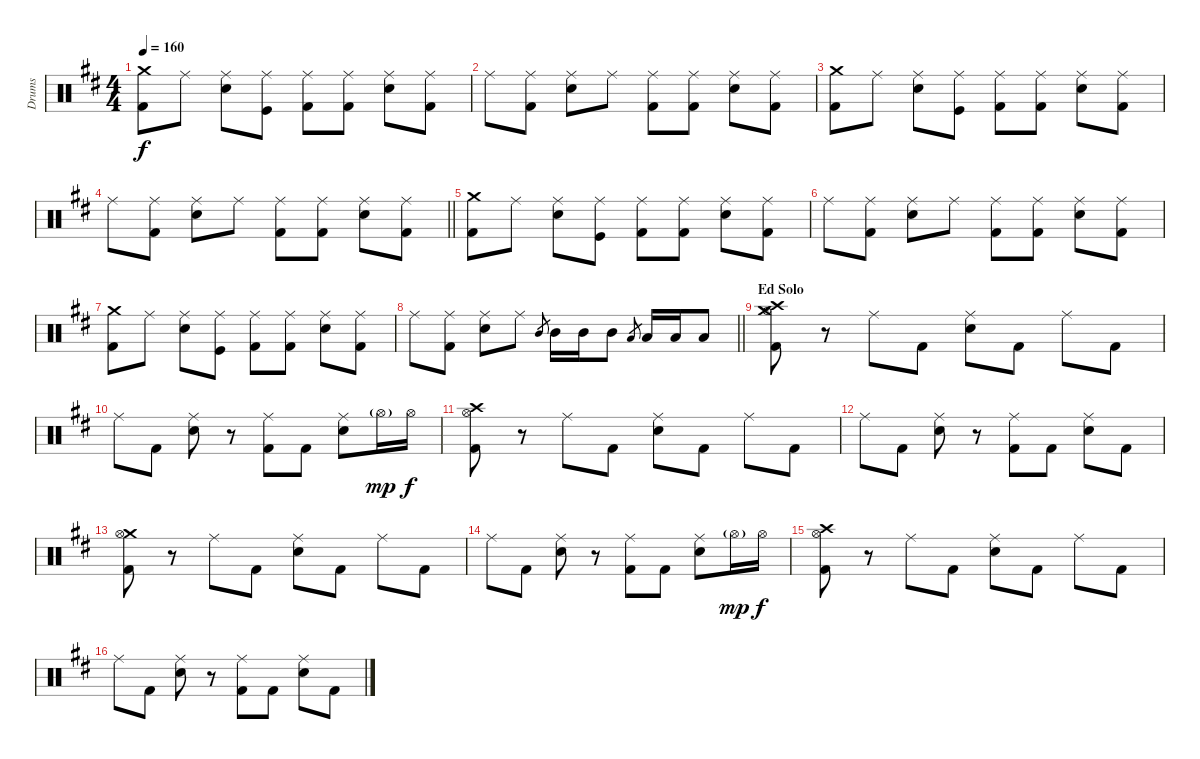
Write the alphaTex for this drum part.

\track ("Drums" "Drums") {instrument percussion}
\staff {score}
\articulation defaults
\ts (4 4)
\tempo 160
\clef neutral
\ks d
("Crash medium (hit)" "Kick (hit) 2").8{dy f} "Ride (middle)".8 ("Ride (middle)" "Electric Snare (hit)").8 ("Ride (middle)" "Kick (hit)").8 ("Ride (middle)" "Kick (hit) 2").8 ("Ride (middle)" "Kick (hit) 2").8 ("Ride (middle)" "Electric Snare (hit)").8 ("Ride (middle)" "Kick (hit) 2").8 |
"Ride (middle)".8 ("Ride (middle)" "Kick (hit) 2").8 ("Ride (middle)" "Electric Snare (hit)").8 "Ride (middle)".8 ("Ride (middle)" "Kick (hit) 2").8 ("Ride (middle)" "Kick (hit) 2").8 ("Ride (middle)" "Electric Snare (hit)").8 ("Ride (middle)" "Kick (hit) 2").8 |
("Crash medium (hit)" "Kick (hit) 2").8 "Ride (middle)".8 ("Ride (middle)" "Electric Snare (hit)").8 ("Ride (middle)" "Kick (hit)").8 ("Ride (middle)" "Kick (hit) 2").8 ("Ride (middle)" "Kick (hit) 2").8 ("Ride (middle)" "Electric Snare (hit)").8 ("Ride (middle)" "Kick (hit) 2").8 |
\barLineRight lightlight "Ride (middle)".8
("Ride (middle)" "Kick (hit) 2").8 ("Ride (middle)" "Electric Snare (hit)").8 "Ride (middle)".8 ("Ride (middle)" "Kick (hit) 2").8 ("Ride (middle)" "Kick (hit) 2").8 ("Ride (middle)" "Electric Snare (hit)").8 ("Ride (middle)" "Kick (hit) 2").8 |
("Crash medium (hit)" "Kick (hit) 2").8 "Ride (middle)".8 ("Ride (middle)" "Electric Snare (hit)").8 ("Ride (middle)" "Kick (hit)").8 ("Ride (middle)" "Kick (hit) 2").8 ("Ride (middle)" "Kick (hit) 2").8 ("Ride (middle)" "Electric Snare (hit)").8 ("Ride (middle)" "Kick (hit) 2").8 |
"Ride (middle)".8 ("Ride (middle)" "Kick (hit) 2").8 ("Ride (middle)" "Electric Snare (hit)").8 "Ride (middle)".8 ("Ride (middle)" "Kick (hit) 2").8 ("Ride (middle)" "Kick (hit) 2").8 ("Ride (middle)" "Electric Snare (hit)").8 ("Ride (middle)" "Kick (hit) 2").8 |
("Crash medium (hit)" "Kick (hit) 2").8 "Ride (middle)".8 ("Ride (middle)" "Electric Snare (hit)").8 ("Ride (middle)" "Kick (hit)").8 ("Ride (middle)" "Kick (hit) 2").8 ("Ride (middle)" "Kick (hit) 2").8 ("Ride (middle)" "Electric Snare (hit)").8 ("Ride (middle)" "Kick (hit) 2").8 |
\barLineRight lightlight "Ride (middle)".8
("Ride (middle)" "Kick (hit) 2").8 ("Ride (middle)" "Electric Snare (hit)").8 "Ride (middle)".8 "Mid Tom (hit)".8{gr} "Mid Tom (hit)".16 "Mid Tom (hit)".16 "Mid Tom (hit)".8 "Low Tom (hit)".8{gr} "Low Tom (hit)".16 "Low Tom (hit)".16 "Low Tom (hit)".8 |
\section ("" "Ed Solo")
("Crash medium (hit)" "Crash high (hit)" "Hi-Hat (open)" "Kick (hit) 2").8 r.8 "Ride (middle)".8 "Kick (hit) 2".8 ("Electric Snare (hit)" "Ride (middle)").8 "Kick (hit) 2".8 "Ride (middle)".8 "Kick (hit) 2".8 |
"Ride (middle)".8 "Kick (hit) 2".8 ("Electric Snare (hit)" "Ride (middle)").8 r.8 ("Ride (middle)" "Kick (hit) 2").8 "Kick (hit) 2".8 ("Electric Snare (hit)" "Ride (middle)").8 "Hi-Hat (open)"{g}.16{dy mp} "Hi-Hat (open)".16{dy f} |
("Crash high (hit)" "Hi-Hat (open)" "Kick (hit) 2").8 r.8 "Ride (middle)".8 "Kick (hit) 2".8 ("Electric Snare (hit)" "Ride (middle)").8 "Kick (hit) 2".8 "Ride (middle)".8 "Kick (hit) 2".8 |
"Ride (middle)".8 "Kick (hit) 2".8 ("Electric Snare (hit)" "Ride (middle)").8 r.8 ("Ride (middle)" "Kick (hit) 2").8 "Kick (hit) 2".8 ("Electric Snare (hit)" "Ride (middle)").8 "Kick (hit) 2".8 |
("Crash medium (hit)" "Hi-Hat (open)" "Kick (hit) 2").8 r.8 "Ride (middle)".8 "Kick (hit) 2".8 ("Electric Snare (hit)" "Ride (middle)").8 "Kick (hit) 2".8 "Ride (middle)".8 "Kick (hit) 2".8 |
"Ride (middle)".8 "Kick (hit) 2".8 ("Electric Snare (hit)" "Ride (middle)").8 r.8 ("Ride (middle)" "Kick (hit) 2").8 "Kick (hit) 2".8 ("Electric Snare (hit)" "Ride (middle)").8 "Hi-Hat (open)"{g}.16{dy mp} "Hi-Hat (open)".16{dy f} |
("Crash high (hit)" "Hi-Hat (open)" "Kick (hit) 2").8 r.8 "Ride (middle)".8 "Kick (hit) 2".8 ("Electric Snare (hit)" "Ride (middle)").8 "Kick (hit) 2".8 "Ride (middle)".8 "Kick (hit) 2".8 |
"Ride (middle)".8 "Kick (hit) 2".8 ("Electric Snare (hit)" "Ride (middle)").8 r.8 ("Ride (middle)" "Kick (hit) 2").8 "Kick (hit) 2".8 ("Electric Snare (hit)" "Ride (middle)").8 "Kick (hit) 2".8
